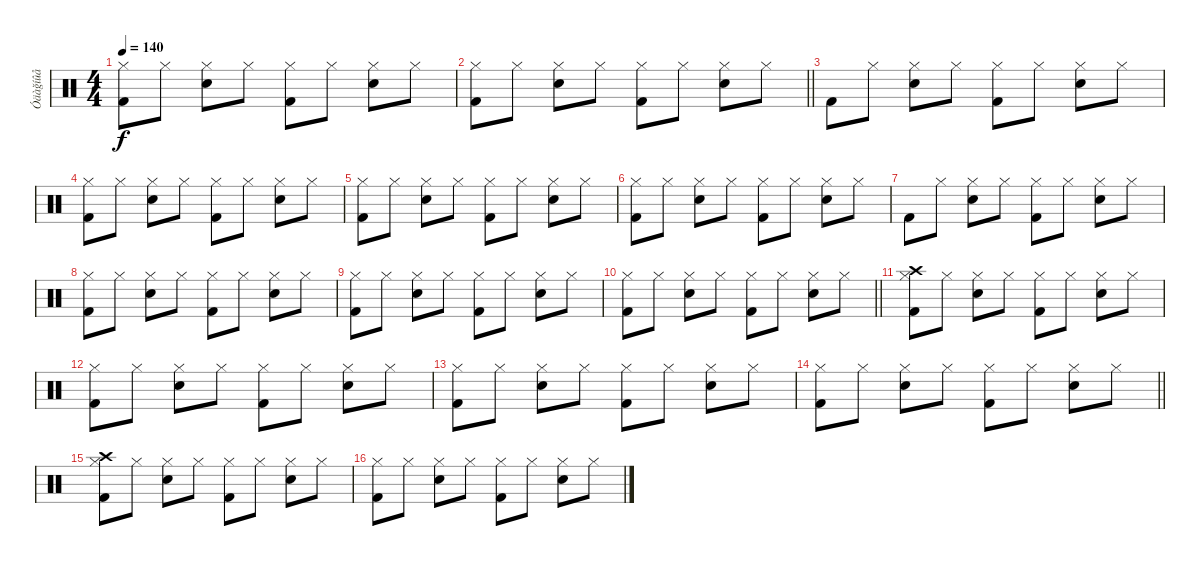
\track ("Óäàğíûå" "Óäàğíûå") {instrument percussion}
\staff {score}
\articulation defaults
\ts (4 4)
\tempo 140
\clef neutral
\ks c
("Hi-Hat (closed)" "Kick (hit) 2").8{dy f} "Hi-Hat (closed)".8 ("Hi-Hat (closed)" "Snare (hit) 2").8 "Hi-Hat (closed)".8 ("Hi-Hat (closed)" "Kick (hit) 2").8 "Hi-Hat (closed)".8 ("Hi-Hat (closed)" "Snare (hit) 2").8 "Hi-Hat (closed)".8 |
\barLineRight lightlight
("Hi-Hat (closed)" "Kick (hit) 2").8 "Hi-Hat (closed)".8 ("Hi-Hat (closed)" "Snare (hit) 2").8 "Hi-Hat (closed)".8 ("Hi-Hat (closed)" "Kick (hit) 2").8 "Hi-Hat (closed)".8 ("Hi-Hat (closed)" "Snare (hit) 2").8 "Hi-Hat (closed)".8 |
"Kick (hit) 2".8 "Hi-Hat (closed)".8 ("Hi-Hat (closed)" "Snare (hit) 2").8 "Hi-Hat (closed)".8 ("Hi-Hat (closed)" "Kick (hit) 2").8 "Hi-Hat (closed)".8 ("Hi-Hat (closed)" "Snare (hit) 2").8 "Hi-Hat (closed)".8 |
("Hi-Hat (closed)" "Kick (hit) 2").8 "Hi-Hat (closed)".8 ("Hi-Hat (closed)" "Snare (hit) 2").8 "Hi-Hat (closed)".8 ("Hi-Hat (closed)" "Kick (hit) 2").8 "Hi-Hat (closed)".8 ("Hi-Hat (closed)" "Snare (hit) 2").8 "Hi-Hat (closed)".8 |
("Hi-Hat (closed)" "Kick (hit) 2").8 "Hi-Hat (closed)".8 ("Hi-Hat (closed)" "Snare (hit) 2").8 "Hi-Hat (closed)".8 ("Hi-Hat (closed)" "Kick (hit) 2").8 "Hi-Hat (closed)".8 ("Hi-Hat (closed)" "Snare (hit) 2").8 "Hi-Hat (closed)".8 |
("Hi-Hat (closed)" "Kick (hit) 2").8 "Hi-Hat (closed)".8 ("Hi-Hat (closed)" "Snare (hit) 2").8 "Hi-Hat (closed)".8 ("Hi-Hat (closed)" "Kick (hit) 2").8 "Hi-Hat (closed)".8 ("Hi-Hat (closed)" "Snare (hit) 2").8 "Hi-Hat (closed)".8 |
"Kick (hit) 2".8 "Hi-Hat (closed)".8 ("Hi-Hat (closed)" "Snare (hit) 2").8 "Hi-Hat (closed)".8 ("Hi-Hat (closed)" "Kick (hit) 2").8 "Hi-Hat (closed)".8 ("Hi-Hat (closed)" "Snare (hit) 2").8 "Hi-Hat (closed)".8 |
("Hi-Hat (closed)" "Kick (hit) 2").8 "Hi-Hat (closed)".8 ("Hi-Hat (closed)" "Snare (hit) 2").8 "Hi-Hat (closed)".8 ("Hi-Hat (closed)" "Kick (hit) 2").8 "Hi-Hat (closed)".8 ("Hi-Hat (closed)" "Snare (hit) 2").8 "Hi-Hat (closed)".8 |
("Hi-Hat (closed)" "Kick (hit) 2").8 "Hi-Hat (closed)".8 ("Hi-Hat (closed)" "Snare (hit) 2").8 "Hi-Hat (closed)".8 ("Hi-Hat (closed)" "Kick (hit) 2").8 "Hi-Hat (closed)".8 ("Hi-Hat (closed)" "Snare (hit) 2").8 "Hi-Hat (closed)".8 |
\barLineRight lightlight
("Hi-Hat (closed)" "Kick (hit) 2").8 "Hi-Hat (closed)".8 ("Hi-Hat (closed)" "Snare (hit) 2").8 "Hi-Hat (closed)".8 ("Hi-Hat (closed)" "Kick (hit) 2").8 "Hi-Hat (closed)".8 ("Hi-Hat (closed)" "Snare (hit) 2").8 "Hi-Hat (closed)".8 |
("Hi-Hat (closed)" "Kick (hit) 2" "Crash high (hit)").8 "Hi-Hat (closed)".8 ("Hi-Hat (closed)" "Snare (hit) 2").8 "Hi-Hat (closed)".8 ("Hi-Hat (closed)" "Kick (hit) 2").8 "Hi-Hat (closed)".8 ("Hi-Hat (closed)" "Snare (hit) 2").8 "Hi-Hat (closed)".8 |
("Hi-Hat (closed)" "Kick (hit) 2").8 "Hi-Hat (closed)".8 ("Hi-Hat (closed)" "Snare (hit) 2").8 "Hi-Hat (closed)".8 ("Hi-Hat (closed)" "Kick (hit) 2").8 "Hi-Hat (closed)".8 ("Hi-Hat (closed)" "Snare (hit) 2").8 "Hi-Hat (closed)".8 |
("Hi-Hat (closed)" "Kick (hit) 2").8 "Hi-Hat (closed)".8 ("Hi-Hat (closed)" "Snare (hit) 2").8 "Hi-Hat (closed)".8 ("Hi-Hat (closed)" "Kick (hit) 2").8 "Hi-Hat (closed)".8 ("Hi-Hat (closed)" "Snare (hit) 2").8 "Hi-Hat (closed)".8 |
\barLineRight lightlight
("Hi-Hat (closed)" "Kick (hit) 2").8 "Hi-Hat (closed)".8 ("Hi-Hat (closed)" "Snare (hit) 2").8 "Hi-Hat (closed)".8 ("Hi-Hat (closed)" "Kick (hit) 2").8 "Hi-Hat (closed)".8 ("Hi-Hat (closed)" "Snare (hit) 2").8 "Hi-Hat (closed)".8 |
("Hi-Hat (closed)" "Kick (hit) 2" "Crash high (hit)").8 "Hi-Hat (closed)".8 ("Hi-Hat (closed)" "Snare (hit) 2").8 "Hi-Hat (closed)".8 ("Hi-Hat (closed)" "Kick (hit) 2").8 "Hi-Hat (closed)".8 ("Hi-Hat (closed)" "Snare (hit) 2").8 "Hi-Hat (closed)".8 |
("Hi-Hat (closed)" "Kick (hit) 2").8 "Hi-Hat (closed)".8 ("Hi-Hat (closed)" "Snare (hit) 2").8 "Hi-Hat (closed)".8 ("Hi-Hat (closed)" "Kick (hit) 2").8 "Hi-Hat (closed)".8 ("Hi-Hat (closed)" "Snare (hit) 2").8 "Hi-Hat (closed)".8
